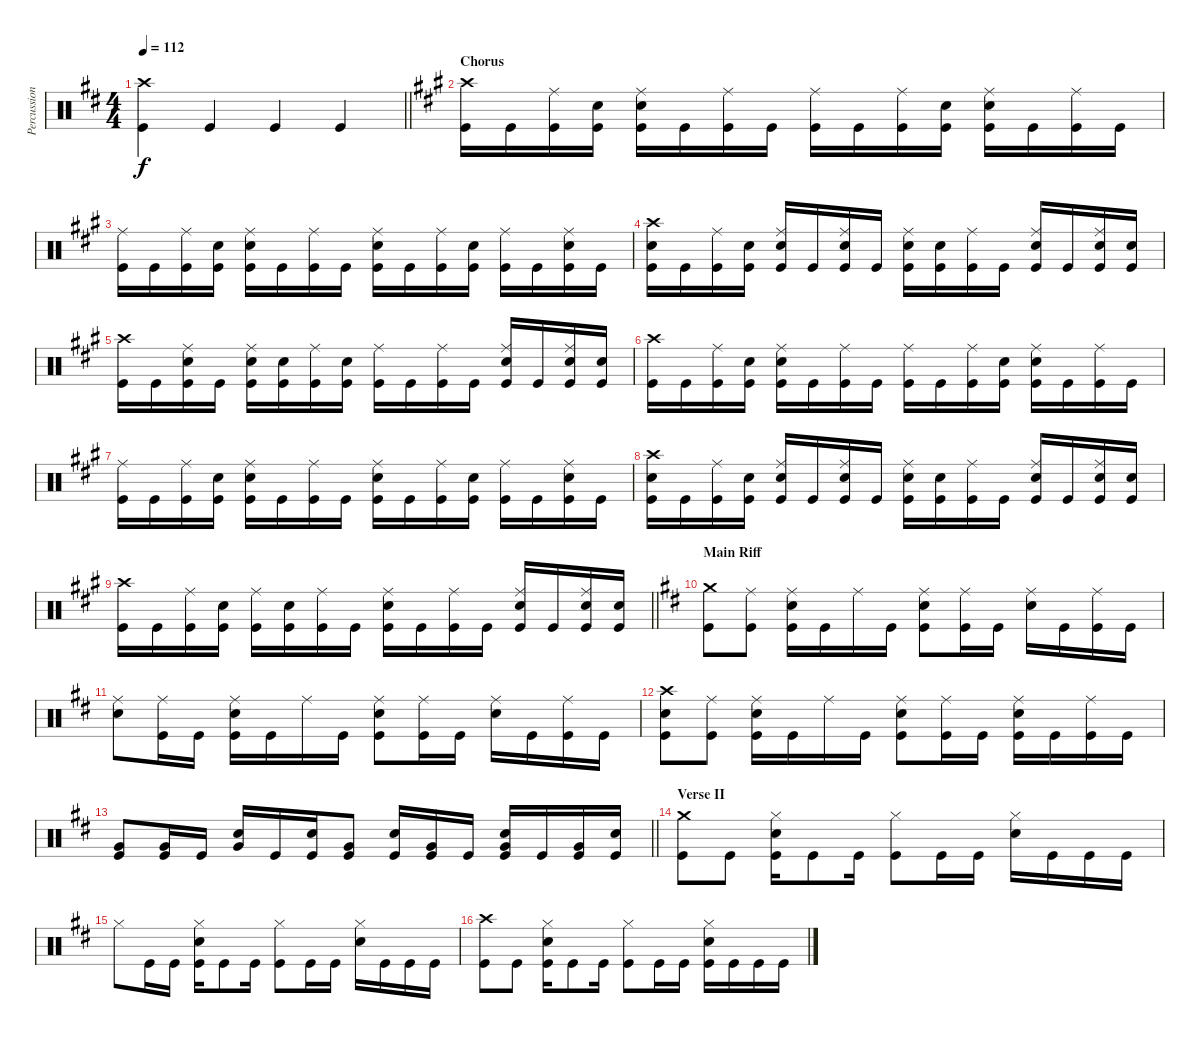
\track ("Percussion" "Percussion") {instrument percussion}
\staff {score}
\articulation defaults
\ts (4 4)
\tempo 112
\clef neutral
\barLineRight lightlight
\ks d
("Crash high (hit)" "Kick (hit)").4{dy f} "Kick (hit)".4 "Kick (hit)".4 "Kick (hit)".4 |
\section ("" "Chorus")
\ks a
("Crash high (hit)" "Kick (hit)").16 "Kick (hit)".16 ("Ride (middle)" "Kick (hit)").16 ("Electric Snare (hit)" "Kick (hit)").16 ("Ride (middle)" "Electric Snare (hit)" "Kick (hit)").16 "Kick (hit)".16 ("Ride (middle)" "Kick (hit)").16 "Kick (hit)".16 ("Ride (middle)" "Kick (hit)").16 "Kick (hit)".16 ("Ride (middle)" "Kick (hit)").16 ("Electric Snare (hit)" "Kick (hit)").16 ("Ride (middle)" "Electric Snare (hit)" "Kick (hit)").16 "Kick (hit)".16 ("Ride (middle)" "Kick (hit)").16 "Kick (hit)".16 |
("Ride (middle)" "Kick (hit)").16 "Kick (hit)".16 ("Ride (middle)" "Kick (hit)").16 ("Electric Snare (hit)" "Kick (hit)").16 ("Ride (middle)" "Electric Snare (hit)" "Kick (hit)").16 "Kick (hit)".16 ("Ride (middle)" "Kick (hit)").16 "Kick (hit)".16 ("Ride (middle)" "Electric Snare (hit)" "Kick (hit)").16 "Kick (hit)".16 ("Ride (middle)" "Kick (hit)").16 ("Electric Snare (hit)" "Kick (hit)").16 ("Ride (middle)" "Kick (hit)").16 "Kick (hit)".16 ("Ride (middle)" "Electric Snare (hit)" "Kick (hit)").16 "Kick (hit)".16 |
("Crash high (hit)" "Electric Snare (hit)" "Kick (hit)").16 "Kick (hit)".16 ("Ride (middle)" "Kick (hit)").16 ("Electric Snare (hit)" "Kick (hit)").16 ("Ride (middle)" "Electric Snare (hit)" "Kick (hit)").16 "Kick (hit)".16 ("Ride (middle)" "Electric Snare (hit)" "Kick (hit)").16 "Kick (hit)".16 ("Ride (middle)" "Electric Snare (hit)" "Kick (hit)").16 ("Electric Snare (hit)" "Kick (hit)").16 ("Ride (middle)" "Kick (hit)").16 "Kick (hit)".16 ("Ride (middle)" "Electric Snare (hit)" "Kick (hit)").16 "Kick (hit)".16 ("Ride (middle)" "Electric Snare (hit)" "Kick (hit)").16 ("Electric Snare (hit)" "Kick (hit)").16 |
("Crash high (hit)" "Kick (hit)").16 "Kick (hit)".16 ("Ride (middle)" "Electric Snare (hit)" "Kick (hit)").16 "Kick (hit)".16 ("Ride (middle)" "Electric Snare (hit)" "Kick (hit)").16 ("Electric Snare (hit)" "Kick (hit)").16 ("Ride (middle)" "Kick (hit)").16 ("Electric Snare (hit)" "Kick (hit)").16 ("Ride (middle)" "Kick (hit)").16 "Kick (hit)".16 ("Ride (middle)" "Kick (hit)").16 "Kick (hit)".16 ("Ride (middle)" "Electric Snare (hit)" "Kick (hit)").16 "Kick (hit)".16 ("Ride (middle)" "Electric Snare (hit)" "Kick (hit)").16 ("Electric Snare (hit)" "Kick (hit)").16 |
("Crash high (hit)" "Kick (hit)").16 "Kick (hit)".16 ("Ride (middle)" "Kick (hit)").16 ("Electric Snare (hit)" "Kick (hit)").16 ("Ride (middle)" "Electric Snare (hit)" "Kick (hit)").16 "Kick (hit)".16 ("Ride (middle)" "Kick (hit)").16 "Kick (hit)".16 ("Ride (middle)" "Kick (hit)").16 "Kick (hit)".16 ("Ride (middle)" "Kick (hit)").16 ("Electric Snare (hit)" "Kick (hit)").16 ("Ride (middle)" "Electric Snare (hit)" "Kick (hit)").16 "Kick (hit)".16 ("Ride (middle)" "Kick (hit)").16 "Kick (hit)".16 |
("Ride (middle)" "Kick (hit)").16 "Kick (hit)".16 ("Ride (middle)" "Kick (hit)").16 ("Electric Snare (hit)" "Kick (hit)").16 ("Ride (middle)" "Electric Snare (hit)" "Kick (hit)").16 "Kick (hit)".16 ("Ride (middle)" "Kick (hit)").16 "Kick (hit)".16 ("Ride (middle)" "Electric Snare (hit)" "Kick (hit)").16 "Kick (hit)".16 ("Ride (middle)" "Kick (hit)").16 ("Electric Snare (hit)" "Kick (hit)").16 ("Ride (middle)" "Kick (hit)").16 "Kick (hit)".16 ("Ride (middle)" "Electric Snare (hit)" "Kick (hit)").16 "Kick (hit)".16 |
("Crash high (hit)" "Electric Snare (hit)" "Kick (hit)").16 "Kick (hit)".16 ("Ride (middle)" "Kick (hit)").16 ("Electric Snare (hit)" "Kick (hit)").16 ("Ride (middle)" "Electric Snare (hit)" "Kick (hit)").16 "Kick (hit)".16 ("Ride (middle)" "Electric Snare (hit)" "Kick (hit)").16 "Kick (hit)".16 ("Ride (middle)" "Electric Snare (hit)" "Kick (hit)").16 ("Electric Snare (hit)" "Kick (hit)").16 ("Ride (middle)" "Kick (hit)").16 "Kick (hit)".16 ("Ride (middle)" "Electric Snare (hit)" "Kick (hit)").16 "Kick (hit)".16 ("Ride (middle)" "Electric Snare (hit)" "Kick (hit)").16 ("Electric Snare (hit)" "Kick (hit)").16 |
\barLineRight lightlight
("Crash high (hit)" "Kick (hit)").16 "Kick (hit)".16 ("Ride (middle)" "Kick (hit)").16 ("Electric Snare (hit)" "Kick (hit)").16 ("Ride (middle)" "Kick (hit)").16 ("Electric Snare (hit)" "Kick (hit)").16 ("Ride (middle)" "Kick (hit)").16 "Kick (hit)".16 ("Ride (middle)" "Electric Snare (hit)" "Kick (hit)").16 "Kick (hit)".16 ("Ride (middle)" "Kick (hit)").16 "Kick (hit)".16 ("Ride (middle)" "Electric Snare (hit)" "Kick (hit)").16 "Kick (hit)".16 ("Ride (middle)" "Electric Snare (hit)" "Kick (hit)").16 ("Electric Snare (hit)" "Kick (hit)").16 |
\section ("" "Main Riff")
\ks d
("Crash medium (hit)" "Kick (hit)").8 ("Ride (middle)" "Kick (hit)").8 ("Ride (middle)" "Electric Snare (hit)" "Kick (hit)").16 "Kick (hit)".16 "Ride (middle)".16 "Kick (hit)".16 ("Ride (middle)" "Electric Snare (hit)" "Kick (hit)").8 ("Ride (middle)" "Kick (hit)").16 "Kick (hit)".16 ("Ride (middle)" "Electric Snare (hit)").16 "Kick (hit)".16 ("Ride (middle)" "Kick (hit)").16 "Kick (hit)".16 |
("Ride (middle)" "Electric Snare (hit)").8 ("Ride (middle)" "Kick (hit)").16 "Kick (hit)".16 ("Ride (middle)" "Electric Snare (hit)" "Kick (hit)").16 "Kick (hit)".16 "Ride (middle)".16 "Kick (hit)".16 ("Ride (middle)" "Electric Snare (hit)" "Kick (hit)").8 ("Ride (middle)" "Kick (hit)").16 "Kick (hit)".16 ("Ride (middle)" "Electric Snare (hit)").16 "Kick (hit)".16 ("Ride (middle)" "Kick (hit)").16 "Kick (hit)".16 |
("Crash high (hit)" "Electric Snare (hit)" "Kick (hit)").8 ("Ride (middle)" "Kick (hit)").8 ("Ride (middle)" "Electric Snare (hit)" "Kick (hit)").16 "Kick (hit)".16 "Ride (middle)".16 "Kick (hit)".16 ("Ride (middle)" "Electric Snare (hit)" "Kick (hit)").8 ("Ride (middle)" "Kick (hit)").16 "Kick (hit)".16 ("Ride (middle)" "Electric Snare (hit)" "Kick (hit)").16 "Kick (hit)".16 ("Ride (middle)" "Kick (hit)").16 "Kick (hit)".16 |
\barLineRight lightlight
("Very Low Tom (hit)" "Kick (hit)").8 ("Very Low Tom (hit)" "Kick (hit)").16 "Kick (hit)".16 ("Very Low Tom (hit)" "Electric Snare (hit)").16 "Kick (hit)".16 ("Electric Snare (hit)" "Kick (hit)").16 ("Very Low Tom (hit)" "Kick (hit)").8 ("Electric Snare (hit)" "Kick (hit)").16 ("Very Low Tom (hit)" "Kick (hit)").16 "Kick (hit)".16 ("Very Low Tom (hit)" "Electric Snare (hit)" "Kick (hit)").16 "Kick (hit)".16 ("Very Low Tom (hit)" "Kick (hit)").16 ("Electric Snare (hit)" "Kick (hit)").16 |
\section ("" "Verse II")
("Crash medium (hit)" "Kick (hit)").8 "Kick (hit)".8 ("Hi-Hat (closed)" "Electric Snare (hit)" "Kick (hit)").16 "Kick (hit)".8 "Kick (hit)".16 ("Hi-Hat (closed)" "Kick (hit)").8 "Kick (hit)".16 "Kick (hit)".16 ("Hi-Hat (closed)" "Electric Snare (hit)").16 "Kick (hit)".16 "Kick (hit)".16 "Kick (hit)".16 |
"Hi-Hat (closed)".8 "Kick (hit)".16 "Kick (hit)".16 ("Hi-Hat (closed)" "Electric Snare (hit)" "Kick (hit)").16 "Kick (hit)".8 "Kick (hit)".16 ("Hi-Hat (closed)" "Kick (hit)").8 "Kick (hit)".16 "Kick (hit)".16 ("Hi-Hat (closed)" "Electric Snare (hit)").16 "Kick (hit)".16 "Kick (hit)".16 "Kick (hit)".16 |
("Crash high (hit)" "Kick (hit)").8 "Kick (hit)".8 ("Hi-Hat (closed)" "Electric Snare (hit)" "Kick (hit)").16 "Kick (hit)".8 "Kick (hit)".16 ("Hi-Hat (closed)" "Kick (hit)").8 "Kick (hit)".16 "Kick (hit)".16 ("Hi-Hat (closed)" "Electric Snare (hit)" "Kick (hit)").16 "Kick (hit)".16 "Kick (hit)".16 "Kick (hit)".16
